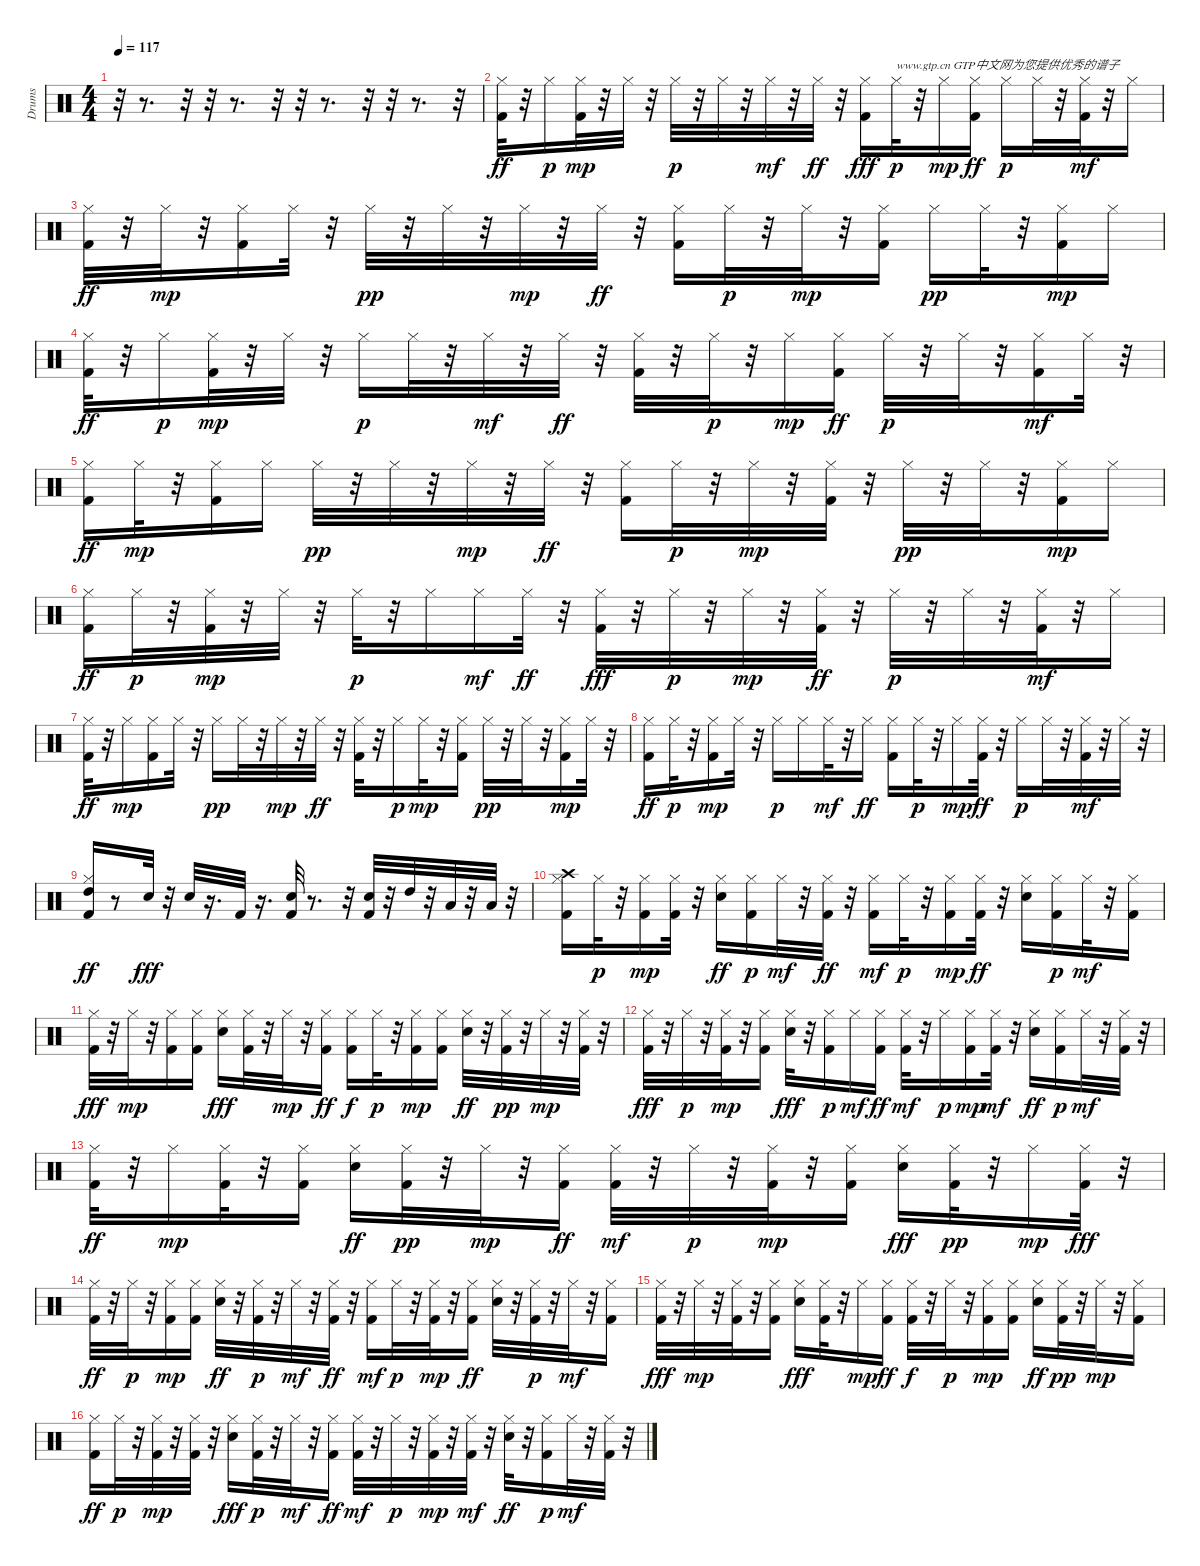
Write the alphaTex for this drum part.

\track ("Drums" "Drums") {instrument percussion}
\staff {score}
\articulation defaults
\ts (4 4)
\tempo 117
\clef neutral
\ks c
r.32{dy ff} r.8{d} r.32 r.32 r.8{d} r.32 r.32 r.8{d} r.32 r.32 r.8{d} r.32 |
("Kick (hit) 2" "Hi-Hat (closed)").32 r.32 "Hi-Hat (closed)".16{dy p} ("Kick (hit) 2" "Hi-Hat (closed)").32{dy mp} r.32 "Hi-Hat (closed)".32 r.32 "Hi-Hat (closed)".32{dy p} r.32 "Hi-Hat (closed)".32 r.32 "Hi-Hat (closed)".32{dy mf} r.32 "Hi-Hat (closed)".32{dy ff} r.32 ("Kick (hit) 2" "Hi-Hat (closed)").16{dy fff} "Hi-Hat (closed)".32{txt "www.gtp.cn GTP中文网为您提供优秀的谱子" dy p} r.32 "Hi-Hat (closed)".16{dy mp} ("Kick (hit) 2" "Hi-Hat (closed)").16{dy ff} "Hi-Hat (closed)".16{dy p} "Hi-Hat (closed)".32 r.32 ("Kick (hit) 2" "Hi-Hat (closed)").32{dy mf} r.32 "Hi-Hat (closed)".16 |
("Kick (hit) 2" "Hi-Hat (closed)").32{dy ff} r.32 "Hi-Hat (closed)".32{dy mp} r.32 ("Kick (hit) 2" "Hi-Hat (closed)").16 "Hi-Hat (closed)".32 r.32 "Hi-Hat (closed)".32{dy pp} r.32 "Hi-Hat (closed)".32 r.32 "Hi-Hat (closed)".32{dy mp} r.32 "Hi-Hat (closed)".32{dy ff} r.32 ("Kick (hit) 2" "Hi-Hat (closed)").16 "Hi-Hat (closed)".32{dy p} r.32 "Hi-Hat (closed)".32{dy mp} r.32 ("Kick (hit) 2" "Hi-Hat (closed)").16 "Hi-Hat (closed)".16{dy pp} "Hi-Hat (closed)".32 r.32 ("Kick (hit) 2" "Hi-Hat (closed)").16{dy mp} "Hi-Hat (closed)".16 |
("Kick (hit) 2" "Hi-Hat (closed)").32{dy ff} r.32 "Hi-Hat (closed)".16{dy p} ("Kick (hit) 2" "Hi-Hat (closed)").32{dy mp} r.32 "Hi-Hat (closed)".32 r.32 "Hi-Hat (closed)".16{dy p} "Hi-Hat (closed)".32 r.32 "Hi-Hat (closed)".32{dy mf} r.32 "Hi-Hat (closed)".32{dy ff} r.32 ("Kick (hit) 2" "Hi-Hat (closed)").32 r.32 "Hi-Hat (closed)".32{dy p} r.32 "Hi-Hat (closed)".16{dy mp} ("Kick (hit) 2" "Hi-Hat (closed)").16{dy ff} "Hi-Hat (closed)".32{dy p} r.32 "Hi-Hat (closed)".32 r.32 ("Kick (hit) 2" "Hi-Hat (closed)").16{dy mf} "Hi-Hat (closed)".32 r.32 |
("Kick (hit) 2" "Hi-Hat (closed)").16{dy ff} "Hi-Hat (closed)".32{dy mp} r.32 ("Kick (hit) 2" "Hi-Hat (closed)").16 "Hi-Hat (closed)".16 "Hi-Hat (closed)".32{dy pp} r.32 "Hi-Hat (closed)".32 r.32 "Hi-Hat (closed)".32{dy mp} r.32 "Hi-Hat (closed)".32{dy ff} r.32 ("Kick (hit) 2" "Hi-Hat (closed)").16 "Hi-Hat (closed)".32{dy p} r.32 "Hi-Hat (closed)".32{dy mp} r.32 ("Kick (hit) 2" "Hi-Hat (closed)").32 r.32 "Hi-Hat (closed)".32{dy pp} r.32 "Hi-Hat (closed)".32 r.32 ("Kick (hit) 2" "Hi-Hat (closed)").16{dy mp} "Hi-Hat (closed)".16 |
("Kick (hit) 2" "Hi-Hat (closed)").16{dy ff} "Hi-Hat (closed)".32{dy p} r.32 ("Kick (hit) 2" "Hi-Hat (closed)").32{dy mp} r.32 "Hi-Hat (closed)".32 r.32 "Hi-Hat (closed)".32{dy p} r.32 "Hi-Hat (closed)".16 "Hi-Hat (closed)".16{dy mf} "Hi-Hat (closed)".32{dy ff} r.32 ("Kick (hit) 2" "Hi-Hat (closed)").32{dy fff} r.32 "Hi-Hat (closed)".32{dy p} r.32 "Hi-Hat (closed)".32{dy mp} r.32 ("Kick (hit) 2" "Hi-Hat (closed)").32{dy ff} r.32 "Hi-Hat (closed)".32{dy p} r.32 "Hi-Hat (closed)".32 r.32 ("Kick (hit) 2" "Hi-Hat (closed)").32{dy mf} r.32 "Hi-Hat (closed)".16 |
("Kick (hit) 2" "Hi-Hat (closed)").32{dy ff} r.32 "Hi-Hat (closed)".16{dy mp} ("Kick (hit) 2" "Hi-Hat (closed)").16 "Hi-Hat (closed)".32 r.32 "Hi-Hat (closed)".16{dy pp} "Hi-Hat (closed)".32 r.32 "Hi-Hat (closed)".32{dy mp} r.32 "Hi-Hat (closed)".32{dy ff} r.32 ("Kick (hit) 2" "Hi-Hat (closed)").32 r.32 "Hi-Hat (closed)".16{dy p} "Hi-Hat (closed)".32{dy mp} r.32 ("Kick (hit) 2" "Hi-Hat (closed)").16 "Hi-Hat (closed)".32{dy pp} r.32 "Hi-Hat (closed)".32 r.32 ("Kick (hit) 2" "Hi-Hat (closed)").16{dy mp} "Hi-Hat (closed)".32 r.32 |
("Kick (hit) 2" "Hi-Hat (closed)").16{dy ff} "Hi-Hat (closed)".32{dy p} r.32 ("Kick (hit) 2" "Hi-Hat (closed)").16{dy mp} "Hi-Hat (closed)".32 r.32 "Hi-Hat (closed)".16{dy p} "Hi-Hat (closed)".16 "Hi-Hat (closed)".32{dy mf} r.32 "Hi-Hat (closed)".16{dy ff} ("Kick (hit) 2" "Hi-Hat (closed)").16 "Hi-Hat (closed)".32{dy p} r.32 "Hi-Hat (closed)".16{dy mp} ("Kick (hit) 2" "Hi-Hat (closed)").32{dy ff} r.32 "Hi-Hat (closed)".16{dy p} "Hi-Hat (closed)".32 r.32 ("Kick (hit) 2" "Hi-Hat (closed)").32{dy mf} r.32 "Hi-Hat (closed)".32 r.32 |
("High Tom (hit)" "Kick (hit) 2" "Hi-Hat (closed)").16{dy ff} r.8 "Snare (hit) 2".32{dy fff} r.32 "Snare (hit) 2".32 r.16{d} "Kick (hit) 2".32 r.16{d} ("Snare (hit) 2" "Kick (hit) 2").32 r.8{d} r.32 ("Kick (hit) 2" "Snare (hit) 2").32 r.32 "High Tom (hit)".32 r.32 "Low Tom (hit)".32 r.32 "Low Floor Tom (hit)".32 r.32 |
("Kick (hit) 2" "Hi-Hat (closed)" "Crash high (hit)").16 "Hi-Hat (closed)".32{dy p} r.32 ("Kick (hit) 2" "Hi-Hat (closed)").16{dy mp} ("Kick (hit) 2" "Hi-Hat (closed)").32 r.32 ("Hi-Hat (closed)" "Snare (hit) 2").16{dy ff} ("Kick (hit) 2" "Hi-Hat (closed)").16{dy p} "Hi-Hat (closed)".32{dy mf} r.32 ("Kick (hit) 2" "Hi-Hat (closed)").32{dy ff} r.32 ("Kick (hit) 2" "Hi-Hat (closed)").16{dy mf} "Hi-Hat (closed)".32{dy p} r.32 ("Kick (hit) 2" "Hi-Hat (closed)").16{dy mp} ("Kick (hit) 2" "Hi-Hat (closed)").32{dy ff} r.32 ("Hi-Hat (closed)" "Snare (hit) 2").16 ("Kick (hit) 2" "Hi-Hat (closed)").16{dy p} "Hi-Hat (closed)".32{dy mf} r.32 ("Kick (hit) 2" "Hi-Hat (closed)").16 |
("Hi-Hat (closed)" "Kick (hit) 2").32{dy fff} r.32 "Hi-Hat (closed)".32{dy mp} r.32 ("Kick (hit) 2" "Hi-Hat (closed)").16 ("Kick (hit) 2" "Hi-Hat (closed)").16 ("Hi-Hat (closed)" "Snare (hit) 2").16{dy fff} ("Hi-Hat (closed)" "Kick (hit) 2").32 r.32 "Hi-Hat (closed)".32{dy mp} r.32 ("Kick (hit) 2" "Hi-Hat (closed)").16{dy ff} ("Hi-Hat (closed)" "Kick (hit) 2").16{dy f} "Hi-Hat (closed)".32{dy p} r.32 ("Kick (hit) 2" "Hi-Hat (closed)").16{dy mp} ("Kick (hit) 2" "Hi-Hat (closed)").16 ("Hi-Hat (closed)" "Snare (hit) 2").32{dy ff} r.32 ("Kick (hit) 2" "Hi-Hat (closed)").32{dy pp} r.32 "Hi-Hat (closed)".32{dy mp} r.32 ("Kick (hit) 2" "Hi-Hat (closed)").32 r.32 |
("Hi-Hat (closed)" "Kick (hit) 2").32{dy fff} r.32 "Hi-Hat (closed)".32{dy p} r.32 ("Kick (hit) 2" "Hi-Hat (closed)").32{dy mp} r.32 ("Kick (hit) 2" "Hi-Hat (closed)").16 ("Hi-Hat (closed)" "Snare (hit) 2").32{dy fff} r.32 ("Kick (hit) 2" "Hi-Hat (closed)").16{dy p} "Hi-Hat (closed)".16{dy mf} ("Kick (hit) 2" "Hi-Hat (closed)").16{dy ff} ("Kick (hit) 2" "Hi-Hat (closed)").32{dy mf} r.32 "Hi-Hat (closed)".16{dy p} ("Kick (hit) 2" "Hi-Hat (closed)").16{dy mp} ("Hi-Hat (closed)" "Kick (hit) 2").32{dy mf} r.32 ("Hi-Hat (closed)" "Snare (hit) 2").16{dy ff} ("Kick (hit) 2" "Hi-Hat (closed)").16{dy p} "Hi-Hat (closed)".32{dy mf} r.32 ("Kick (hit) 2" "Hi-Hat (closed)").32 r.32 |
("Kick (hit) 2" "Hi-Hat (closed)").32{dy ff} r.32 "Hi-Hat (closed)".16{dy mp} ("Kick (hit) 2" "Hi-Hat (closed)").32 r.32 ("Kick (hit) 2" "Hi-Hat (closed)").16 ("Hi-Hat (closed)" "Snare (hit) 2").16{dy ff} ("Hi-Hat (closed)" "Kick (hit) 2").32{dy pp} r.32 "Hi-Hat (closed)".32{dy mp} r.32 ("Kick (hit) 2" "Hi-Hat (closed)").16{dy ff} ("Kick (hit) 2" "Hi-Hat (closed)").32{dy mf} r.32 "Hi-Hat (closed)".32{dy p} r.32 ("Kick (hit) 2" "Hi-Hat (closed)").32{dy mp} r.32 ("Kick (hit) 2" "Hi-Hat (closed)").16 ("Hi-Hat (closed)" "Snare (hit) 2").16{dy fff} ("Kick (hit) 2" "Hi-Hat (closed)").32{dy pp} r.32 "Hi-Hat (closed)".16{dy mp} ("Hi-Hat (closed)" "Kick (hit) 2").32{dy fff} r.32 |
("Kick (hit) 2" "Hi-Hat (closed)").32{dy ff} r.32 "Hi-Hat (closed)".32{dy p} r.32 ("Kick (hit) 2" "Hi-Hat (closed)").16{dy mp} ("Kick (hit) 2" "Hi-Hat (closed)").16 ("Hi-Hat (closed)" "Snare (hit) 2").32{dy ff} r.32 ("Kick (hit) 2" "Hi-Hat (closed)").32{dy p} r.32 "Hi-Hat (closed)".32{dy mf} r.32 ("Kick (hit) 2" "Hi-Hat (closed)").32{dy ff} r.32 ("Kick (hit) 2" "Hi-Hat (closed)").16{dy mf} "Hi-Hat (closed)".32{dy p} r.32 ("Kick (hit) 2" "Hi-Hat (closed)").32{dy mp} r.32 ("Kick (hit) 2" "Hi-Hat (closed)").16{dy ff} ("Hi-Hat (closed)" "Snare (hit) 2").32 r.32 ("Kick (hit) 2" "Hi-Hat (closed)").32{dy p} r.32 "Hi-Hat (closed)".32{dy mf} r.32 ("Kick (hit) 2" "Hi-Hat (closed)").16 |
("Hi-Hat (closed)" "Kick (hit) 2").32{dy fff} r.32 "Hi-Hat (closed)".32{dy mp} r.32 ("Kick (hit) 2" "Hi-Hat (closed)").32 r.32 ("Kick (hit) 2" "Hi-Hat (closed)").16 ("Hi-Hat (closed)" "Snare (hit) 2").16{dy fff} ("Hi-Hat (closed)" "Kick (hit) 2").32 r.32 "Hi-Hat (closed)".16{dy mp} ("Kick (hit) 2" "Hi-Hat (closed)").16{dy ff} ("Hi-Hat (closed)" "Kick (hit) 2").32{dy f} r.32 "Hi-Hat (closed)".32{dy p} r.32 ("Kick (hit) 2" "Hi-Hat (closed)").16{dy mp} ("Kick (hit) 2" "Hi-Hat (closed)").16 ("Hi-Hat (closed)" "Snare (hit) 2").16{dy ff} ("Kick (hit) 2" "Hi-Hat (closed)").32{dy pp} r.32 "Hi-Hat (closed)".32{dy mp} r.32 ("Kick (hit) 2" "Hi-Hat (closed)").16 |
("Kick (hit) 2" "Hi-Hat (closed)").16{dy ff} "Hi-Hat (closed)".32{dy p} r.32 ("Kick (hit) 2" "Hi-Hat (closed)").32{dy mp} r.32 ("Kick (hit) 2" "Hi-Hat (closed)").32 r.32 ("Hi-Hat (closed)" "Snare (hit) 2").16{dy fff} ("Kick (hit) 2" "Hi-Hat (closed)").32{dy p} r.32 "Hi-Hat (closed)".32{dy mf} r.32 ("Kick (hit) 2" "Hi-Hat (closed)").16{dy ff} ("Kick (hit) 2" "Hi-Hat (closed)").32{dy mf} r.32 "Hi-Hat (closed)".32{dy p} r.32 ("Kick (hit) 2" "Hi-Hat (closed)").32{dy mp} r.32 ("Hi-Hat (closed)" "Kick (hit) 2").32{dy mf} r.32 ("Hi-Hat (closed)" "Snare (hit) 2").32{dy ff} r.32 ("Kick (hit) 2" "Hi-Hat (closed)").16{dy p} "Hi-Hat (closed)".32{dy mf} r.32 ("Kick (hit) 2" "Hi-Hat (closed)").32 r.32
